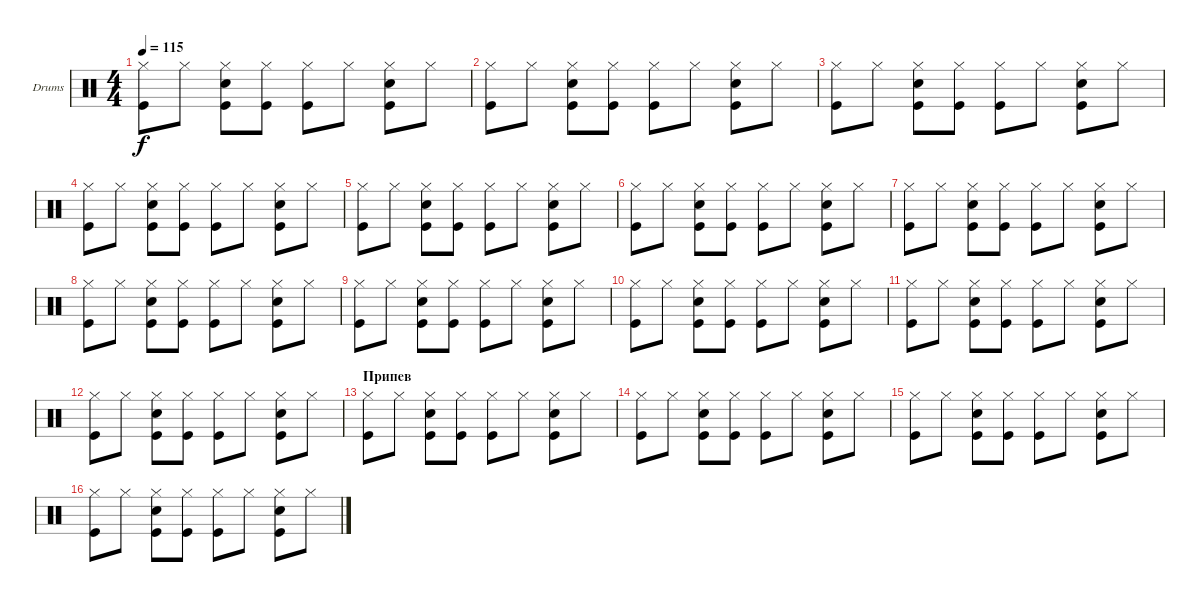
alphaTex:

\defaultSystemsLayout 4
\bracketExtendMode groupsimilarinstruments
\firstSystemTrackNameOrientation horizontal
\otherSystemsTrackNameOrientation horizontal
\track ("Drumkit" "Drums") {instrument percussion}
\staff {score}
\articulation defaults
\ts (4 4)
\tempo 115
\clef neutral
\ks c
("Hi-Hat (closed)" "Kick (hit)").8{dy f} "Hi-Hat (closed)".8 ("Hi-Hat (closed)" "Snare (hit) 2" "Kick (hit)").8 ("Hi-Hat (closed)" "Kick (hit)").8 ("Hi-Hat (closed)" "Kick (hit)").8 "Hi-Hat (closed)".8 ("Hi-Hat (closed)" "Kick (hit)" "Snare (hit) 2").8 "Hi-Hat (closed)".8 |
("Hi-Hat (closed)" "Kick (hit)").8 "Hi-Hat (closed)".8 ("Hi-Hat (closed)" "Snare (hit) 2" "Kick (hit)").8 ("Hi-Hat (closed)" "Kick (hit)").8 ("Hi-Hat (closed)" "Kick (hit)").8 "Hi-Hat (closed)".8 ("Hi-Hat (closed)" "Kick (hit)" "Snare (hit) 2").8 "Hi-Hat (closed)".8 |
("Hi-Hat (closed)" "Kick (hit)").8 "Hi-Hat (closed)".8 ("Hi-Hat (closed)" "Snare (hit) 2" "Kick (hit)").8 ("Hi-Hat (closed)" "Kick (hit)").8 ("Hi-Hat (closed)" "Kick (hit)").8 "Hi-Hat (closed)".8 ("Hi-Hat (closed)" "Kick (hit)" "Snare (hit) 2").8 "Hi-Hat (closed)".8 |
("Hi-Hat (closed)" "Kick (hit)").8 "Hi-Hat (closed)".8 ("Hi-Hat (closed)" "Snare (hit) 2" "Kick (hit)").8 ("Hi-Hat (closed)" "Kick (hit)").8 ("Hi-Hat (closed)" "Kick (hit)").8 "Hi-Hat (closed)".8 ("Hi-Hat (closed)" "Kick (hit)" "Snare (hit) 2").8 "Hi-Hat (closed)".8 |
("Hi-Hat (closed)" "Kick (hit)").8 "Hi-Hat (closed)".8 ("Hi-Hat (closed)" "Snare (hit) 2" "Kick (hit)").8 ("Hi-Hat (closed)" "Kick (hit)").8 ("Hi-Hat (closed)" "Kick (hit)").8 "Hi-Hat (closed)".8 ("Hi-Hat (closed)" "Kick (hit)" "Snare (hit) 2").8 "Hi-Hat (closed)".8 |
("Hi-Hat (closed)" "Kick (hit)").8 "Hi-Hat (closed)".8 ("Hi-Hat (closed)" "Snare (hit) 2" "Kick (hit)").8 ("Hi-Hat (closed)" "Kick (hit)").8 ("Hi-Hat (closed)" "Kick (hit)").8 "Hi-Hat (closed)".8 ("Hi-Hat (closed)" "Kick (hit)" "Snare (hit) 2").8 "Hi-Hat (closed)".8 |
("Hi-Hat (closed)" "Kick (hit)").8 "Hi-Hat (closed)".8 ("Hi-Hat (closed)" "Snare (hit) 2" "Kick (hit)").8 ("Hi-Hat (closed)" "Kick (hit)").8 ("Hi-Hat (closed)" "Kick (hit)").8 "Hi-Hat (closed)".8 ("Hi-Hat (closed)" "Kick (hit)" "Snare (hit) 2").8 "Hi-Hat (closed)".8 |
("Hi-Hat (closed)" "Kick (hit)").8 "Hi-Hat (closed)".8 ("Hi-Hat (closed)" "Snare (hit) 2" "Kick (hit)").8 ("Hi-Hat (closed)" "Kick (hit)").8 ("Hi-Hat (closed)" "Kick (hit)").8 "Hi-Hat (closed)".8 ("Hi-Hat (closed)" "Kick (hit)" "Snare (hit) 2").8 "Hi-Hat (closed)".8 |
("Hi-Hat (closed)" "Kick (hit)").8 "Hi-Hat (closed)".8 ("Hi-Hat (closed)" "Snare (hit) 2" "Kick (hit)").8 ("Hi-Hat (closed)" "Kick (hit)").8 ("Hi-Hat (closed)" "Kick (hit)").8 "Hi-Hat (closed)".8 ("Hi-Hat (closed)" "Kick (hit)" "Snare (hit) 2").8 "Hi-Hat (closed)".8 |
("Hi-Hat (closed)" "Kick (hit)").8 "Hi-Hat (closed)".8 ("Hi-Hat (closed)" "Snare (hit) 2" "Kick (hit)").8 ("Hi-Hat (closed)" "Kick (hit)").8 ("Hi-Hat (closed)" "Kick (hit)").8 "Hi-Hat (closed)".8 ("Hi-Hat (closed)" "Kick (hit)" "Snare (hit) 2").8 "Hi-Hat (closed)".8 |
("Hi-Hat (closed)" "Kick (hit)").8 "Hi-Hat (closed)".8 ("Hi-Hat (closed)" "Snare (hit) 2" "Kick (hit)").8 ("Hi-Hat (closed)" "Kick (hit)").8 ("Hi-Hat (closed)" "Kick (hit)").8 "Hi-Hat (closed)".8 ("Hi-Hat (closed)" "Kick (hit)" "Snare (hit) 2").8 "Hi-Hat (closed)".8 |
("Hi-Hat (closed)" "Kick (hit)").8 "Hi-Hat (closed)".8 ("Hi-Hat (closed)" "Snare (hit) 2" "Kick (hit)").8 ("Hi-Hat (closed)" "Kick (hit)").8 ("Hi-Hat (closed)" "Kick (hit)").8 "Hi-Hat (closed)".8 ("Hi-Hat (closed)" "Kick (hit)" "Snare (hit) 2").8 "Hi-Hat (closed)".8 |
\section ("" "Припев")
("Hi-Hat (closed)" "Kick (hit)").8 "Hi-Hat (closed)".8 ("Hi-Hat (closed)" "Snare (hit) 2" "Kick (hit)").8 ("Hi-Hat (closed)" "Kick (hit)").8 ("Hi-Hat (closed)" "Kick (hit)").8 "Hi-Hat (closed)".8 ("Hi-Hat (closed)" "Kick (hit)" "Snare (hit) 2").8 "Hi-Hat (closed)".8 |
("Hi-Hat (closed)" "Kick (hit)").8 "Hi-Hat (closed)".8 ("Hi-Hat (closed)" "Snare (hit) 2" "Kick (hit)").8 ("Hi-Hat (closed)" "Kick (hit)").8 ("Hi-Hat (closed)" "Kick (hit)").8 "Hi-Hat (closed)".8 ("Hi-Hat (closed)" "Kick (hit)" "Snare (hit) 2").8 "Hi-Hat (closed)".8 |
("Hi-Hat (closed)" "Kick (hit)").8 "Hi-Hat (closed)".8 ("Hi-Hat (closed)" "Snare (hit) 2" "Kick (hit)").8 ("Hi-Hat (closed)" "Kick (hit)").8 ("Hi-Hat (closed)" "Kick (hit)").8 "Hi-Hat (closed)".8 ("Hi-Hat (closed)" "Kick (hit)" "Snare (hit) 2").8 "Hi-Hat (closed)".8 |
("Hi-Hat (closed)" "Kick (hit)").8 "Hi-Hat (closed)".8 ("Hi-Hat (closed)" "Snare (hit) 2" "Kick (hit)").8 ("Hi-Hat (closed)" "Kick (hit)").8 ("Hi-Hat (closed)" "Kick (hit)").8 "Hi-Hat (closed)".8 ("Hi-Hat (closed)" "Kick (hit)" "Snare (hit) 2").8 "Hi-Hat (closed)".8
